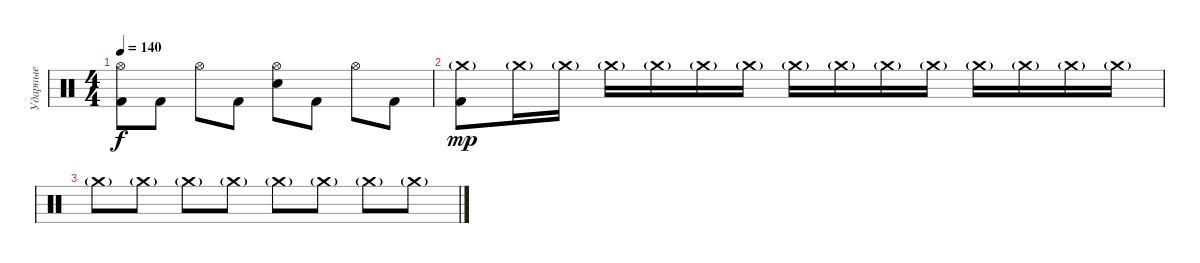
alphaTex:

\track ("Ударные" "Ударные") {instrument percussion}
\staff {score}
\articulation defaults
\ts (4 4)
\tempo 140
\clef neutral
\ks c
("Hi-Hat (open)" "Kick (hit) 2").8{dy f} "Kick (hit) 2".8 "Hi-Hat (open)".8 "Kick (hit) 2".8 ("Hi-Hat (open)" "Snare (hit) 2").8 "Kick (hit) 2".8 "Hi-Hat (open)".8 "Kick (hit) 2".8 |
("Crash medium (hit)"{g} "Kick (hit) 2").8{dy mp} "Crash medium (hit)"{g}.16 "Crash medium (hit)"{g}.16 "Crash medium (hit)"{g}.16 "Crash medium (hit)"{g}.16 "Crash medium (hit)"{g}.16 "Crash medium (hit)"{g}.16 "Crash medium (hit)"{g}.16 "Crash medium (hit)"{g}.16 "Crash medium (hit)"{g}.16 "Crash medium (hit)"{g}.16 "Crash medium (hit)"{g}.16 "Crash medium (hit)"{g}.16 "Crash medium (hit)"{g}.16 "Crash medium (hit)"{g}.16 |
"Crash medium (hit)"{g}.8 "Crash medium (hit)"{g}.8 "Crash medium (hit)"{g}.8 "Crash medium (hit)"{g}.8 "Crash medium (hit)"{g}.8 "Crash medium (hit)"{g}.8 "Crash medium (hit)"{g}.8 "Crash medium (hit)"{g}.8
